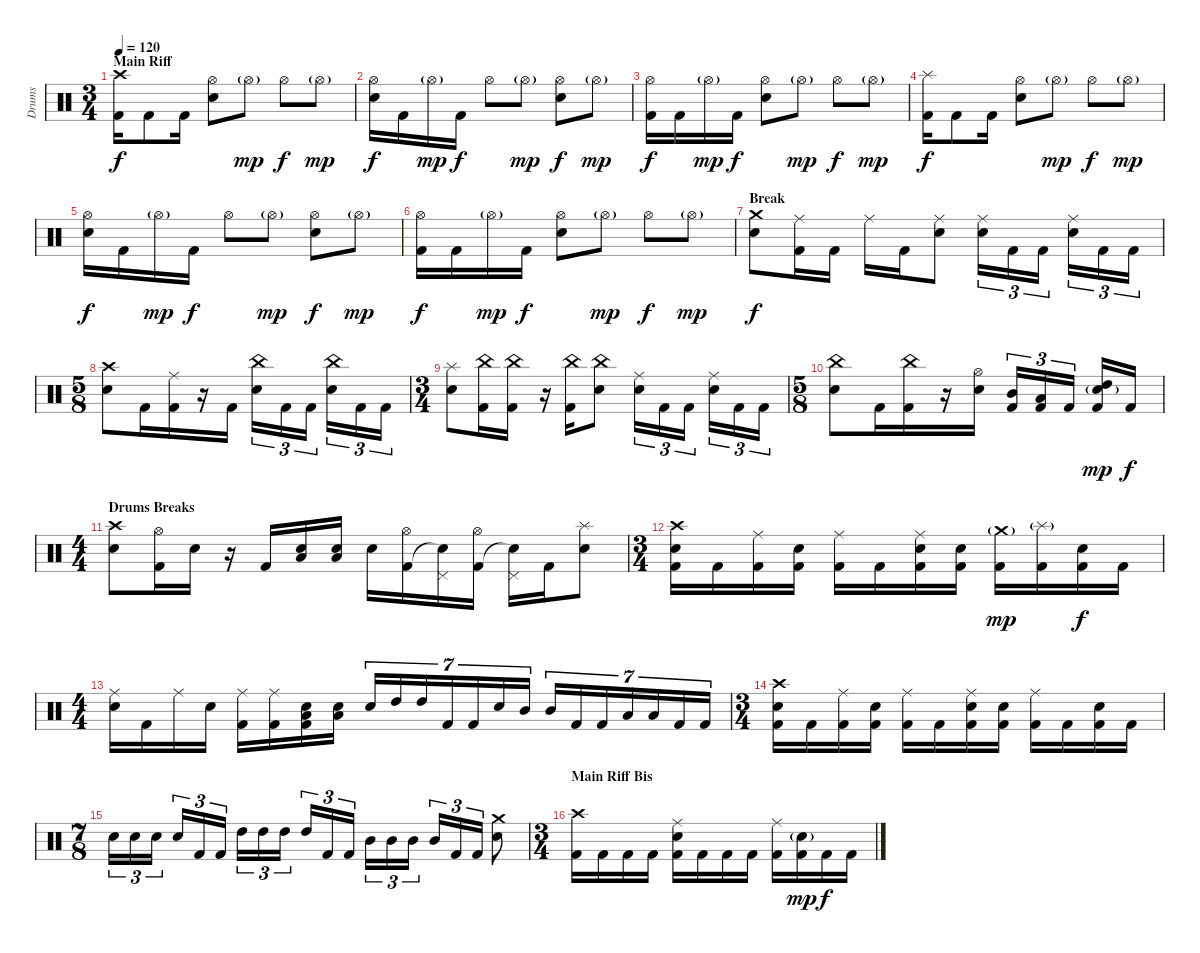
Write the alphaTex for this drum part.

\track ("Drums" "Drums") {instrument percussion}
\staff {score}
\articulation defaults
\ts (3 4)
\section ("" "Main Riff")
\tempo 120
\clef neutral
\ks c
("Crash high (hit)" "Kick (hit) 2").16{dy f} "Kick (hit) 2".8 "Kick (hit) 2".16 ("Hi-Hat (open)" "Snare (hit) 2").8 "Hi-Hat (open)"{g}.8{dy mp} "Hi-Hat (open)".8{dy f} "Hi-Hat (open)"{g}.8{dy mp} |
("Hi-Hat (open)" "Snare (hit) 2").16{dy f} "Kick (hit) 2".16 "Hi-Hat (open)"{g}.16{dy mp} "Kick (hit) 2".16{dy f} "Hi-Hat (open)".8 "Hi-Hat (open)"{g}.8{dy mp} ("Hi-Hat (open)" "Snare (hit) 2").8{dy f} "Hi-Hat (open)"{g}.8{dy mp} |
("Hi-Hat (open)" "Kick (hit) 2").16{dy f} "Kick (hit) 2".16 "Hi-Hat (open)"{g}.16{dy mp} "Kick (hit) 2".16{dy f} ("Hi-Hat (open)" "Snare (hit) 2").8 "Hi-Hat (open)"{g}.8{dy mp} "Hi-Hat (open)".8{dy f} "Hi-Hat (open)"{g}.8{dy mp} |
("Splash (hit)" "Kick (hit) 2").16{dy f} "Kick (hit) 2".8 "Kick (hit) 2".16 ("Hi-Hat (open)" "Snare (hit) 2").8 "Hi-Hat (open)"{g}.8{dy mp} "Hi-Hat (open)".8{dy f} "Hi-Hat (open)"{g}.8{dy mp} |
("Hi-Hat (open)" "Snare (hit) 2").16{dy f} "Kick (hit) 2".16 "Hi-Hat (open)"{g}.16{dy mp} "Kick (hit) 2".16{dy f} "Hi-Hat (open)".8 "Hi-Hat (open)"{g}.8{dy mp} ("Hi-Hat (open)" "Snare (hit) 2").8{dy f} "Hi-Hat (open)"{g}.8{dy mp} |
("Hi-Hat (open)" "Kick (hit) 2").16{dy f} "Kick (hit) 2".16 "Hi-Hat (open)"{g}.16{dy mp} "Kick (hit) 2".16{dy f} ("Hi-Hat (open)" "Snare (hit) 2").8 "Hi-Hat (open)"{g}.8{dy mp} "Hi-Hat (open)".8{dy f} "Hi-Hat (open)"{g}.8{dy mp} |
\section ("" "Break")
("Crash medium (hit)" "Snare (hit) 2").8{dy f} ("Ride (middle)" "Kick (hit) 2").16 "Kick (hit) 2".16 "Ride (middle)".16 "Kick (hit) 2".16 ("Ride (middle)" "Snare (hit) 2").8 ("Ride (middle)" "Snare (hit) 2").16{tu (3 2)} "Kick (hit) 2".16{tu (3 2)} "Kick (hit) 2".16{tu (3 2)} ("Ride (middle)" "Snare (hit) 2").16{tu (3 2)} "Kick (hit) 2".16{tu (3 2)} "Kick (hit) 2".16{tu (3 2)} |
\ts (5 8)
("Crash high (hit)" "Snare (hit) 2").8 "Kick (hit) 2".16 ("Ride (middle)" "Kick (hit) 2").16 r.16 "Kick (hit) 2".16 ("China (hit)" "Snare (hit) 2").16{tu (3 2)} "Kick (hit) 2".16{tu (3 2)} "Kick (hit) 2".16{tu (3 2)} ("China (hit)" "Snare (hit) 2").16{tu (3 2)} "Kick (hit) 2".16{tu (3 2)} "Kick (hit) 2".16{tu (3 2)} |
\ts (3 4)
("Splash (hit)" "Snare (hit) 2").8 ("China (hit)" "Kick (hit) 2").16 ("China (hit)" "Kick (hit) 2").16 r.16 ("China (hit)" "Kick (hit) 2").16 ("China (hit)" "Snare (hit) 2").8 ("Ride (middle)" "Snare (hit) 2").16{tu (3 2)} "Kick (hit) 2".16{tu (3 2)} "Kick (hit) 2".16{tu (3 2)} ("Ride (middle)" "Snare (hit) 2").16{tu (3 2)} "Kick (hit) 2".16{tu (3 2)} "Kick (hit) 2".16{tu (3 2)} |
\ts (5 8)
("China (hit)" "Snare (hit) 2").8 "Kick (hit) 2".16 ("China (hit)" "Kick (hit) 2").16 r.16 ("Hi-Hat (open)" "Snare (hit) 2").16 ("Mid Tom (hit)" "Kick (hit) 2").16{tu (3 2)} ("Low Tom (hit)" "Kick (hit) 2").16{tu (3 2)} "Kick (hit) 2".16{tu (3 2)} ("High Tom (hit)" "Snare (hit) 2"{g} "Kick (hit) 2").16{dy mp} "Kick (hit) 2".16{dy f} |
\ts (4 4)
\section ("" "Drums Breaks")
("Crash high (hit)" "Snare (hit) 2").8 ("Hi-Hat (open)" "Kick (hit) 2").16 "Snare (hit) 2".16 r.16 "Kick (hit) 2".16 ("Low Tom (hit)" "Snare (hit) 2").16 ("Low Tom (hit)" "Snare (hit) 2").16 "Snare (hit) 2".16 ("Hi-Hat (open)" "Kick (hit) 2").16 ("Pedal Hi-Hat (hit)" "Snare (hit)"{t}).16 ("Hi-Hat (open)" "Kick (hit) 2").16 ("Pedal Hi-Hat (hit)" "Snare (hit)"{t}).16 "Kick (hit) 2".16 ("Splash (hit)" "Snare (hit) 2").8 |
\ts (3 4)
("Crash high (hit)" "Snare (hit) 2" "Kick (hit) 2").16 "Kick (hit) 2".16 ("Ride (middle)" "Kick (hit) 2").16 ("Snare (hit) 2" "Kick (hit) 2").16 ("Ride (middle)" "Kick (hit) 2").16 "Kick (hit) 2".16 ("Ride (middle)" "Snare (hit) 2" "Kick (hit) 2").16 ("Snare (hit) 2" "Kick (hit) 2").16 ("Crash medium (hit)"{g} "Kick (hit) 2").16{dy mp} ("Splash (hit)"{g} "Kick (hit) 2").16 ("Snare (hit) 2" "Kick (hit) 2").16{dy f} "Kick (hit) 2".16 |
\ts (4 4)
("Ride (middle)" "Snare (hit) 2").16 "Kick (hit) 2".16 "Ride (middle)".16 "Snare (hit) 2".16 ("Ride (middle)" "Kick (hit) 2").16 ("Ride (middle)" "Kick (hit) 2").16 ("Low Tom (hit)" "Snare (hit) 2" "Kick (hit) 2").16 ("Low Tom (hit)" "Snare (hit) 2").16 "Snare (hit) 2".16{tu (7 4)} "High Tom (hit)".16{tu (7 4)} "High Tom (hit)".16{tu (7 4)} "Kick (hit) 2".16{tu (7 4)} "Kick (hit) 2".16{tu (7 4)} "Snare (hit) 2".16{tu (7 4)} "Mid Tom (hit)".16{tu (7 4)} "Mid Tom (hit)".16{tu (7 4)} "Kick (hit) 2".16{tu (7 4)} "Kick (hit) 2".16{tu (7 4)} "Low Tom (hit)".16{tu (7 4)} "Low Tom (hit)".16{tu (7 4)} "Kick (hit) 2".16{tu (7 4)} "Kick (hit) 2".16{tu (7 4)} |
\ts (3 4)
("Crash high (hit)" "Snare (hit) 2" "Kick (hit) 2").16 "Kick (hit) 2".16 ("Ride (middle)" "Kick (hit) 2").16 ("Snare (hit) 2" "Kick (hit) 2").16 ("Ride (middle)" "Kick (hit) 2").16 "Kick (hit) 2".16 ("Ride (middle)" "Snare (hit) 2" "Kick (hit) 2").16 ("Snare (hit) 2" "Kick (hit) 2").16 ("Ride (middle)" "Kick (hit) 2").16 "Kick (hit) 2".16 ("Snare (hit) 2" "Kick (hit) 2").16 "Kick (hit) 2".16 |
\ts (7 8)
"Snare (hit) 2".16{tu (3 2)} "Snare (hit) 2".16{tu (3 2)} "Snare (hit) 2".16{tu (3 2)} "Snare (hit) 2".16{tu (3 2)} "Kick (hit) 2".16{tu (3 2)} "Kick (hit) 2".16{tu (3 2)} "High Tom (hit)".16{tu (3 2)} "High Tom (hit)".16{tu (3 2)} "High Tom (hit)".16{tu (3 2)} "High Tom (hit)".16{tu (3 2)} "Kick (hit) 2".16{tu (3 2)} "Kick (hit) 2".16{tu (3 2)} "Mid Tom (hit)".16{tu (3 2)} "Mid Tom (hit)".16{tu (3 2)} "Mid Tom (hit)".16{tu (3 2)} "Mid Tom (hit)".16{tu (3 2)} "Kick (hit) 2".16{tu (3 2)} "Kick (hit) 2".16{tu (3 2)} ("Crash medium (hit)" "Snare (hit) 2").8 |
\ts (3 4)
\section ("" "Main Riff Bis")
("Crash high (hit)" "Kick (hit) 2").16 "Kick (hit) 2".16 "Kick (hit) 2".16 "Kick (hit) 2".16 ("Ride (middle)" "Snare (hit) 2" "Kick (hit) 2").16 "Kick (hit) 2".16 "Kick (hit) 2".16 "Kick (hit) 2".16 ("Ride (middle)" "Kick (hit) 2").16 ("Snare (hit) 2"{g} "Kick (hit) 2").16{dy mp} "Kick (hit) 2".16{dy f} "Kick (hit) 2".16
